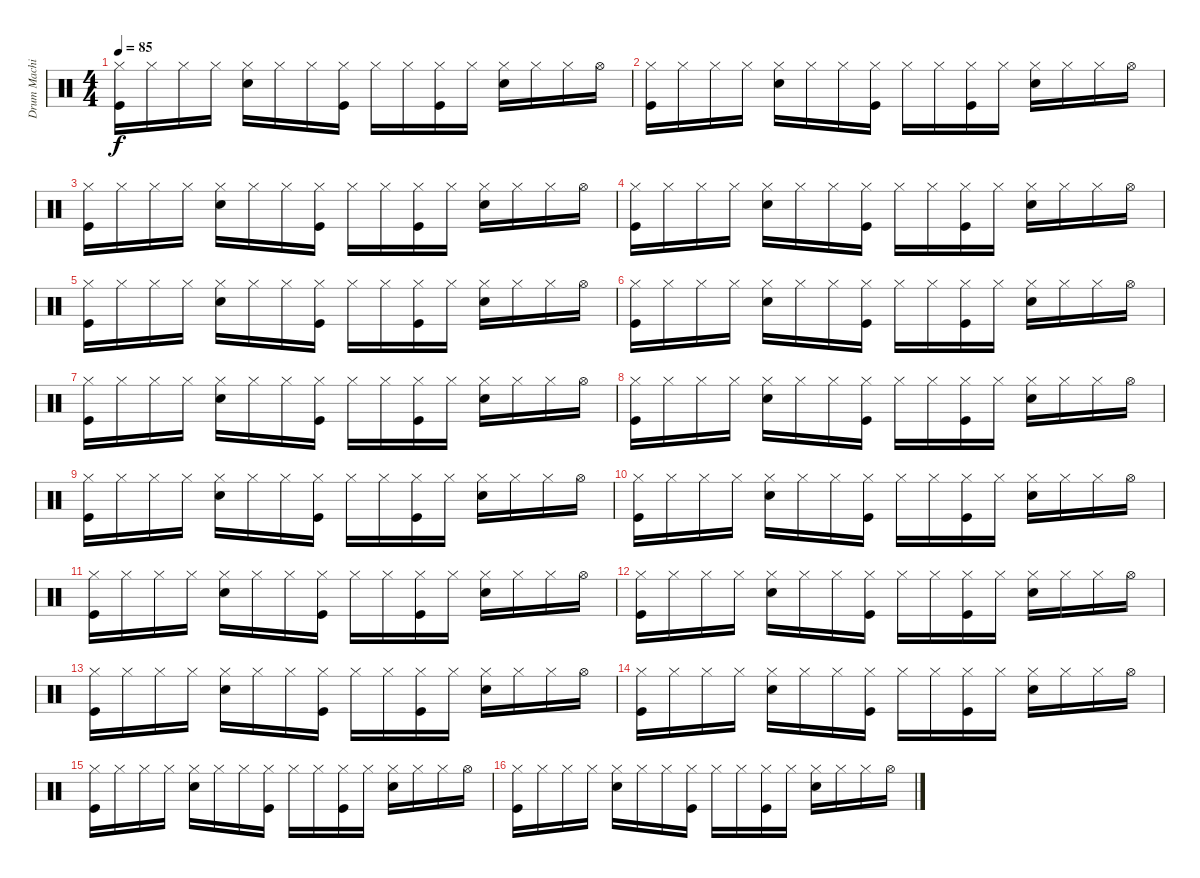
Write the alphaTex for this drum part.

\track ("Drum Machine" "Drum Machi") {instrument percussion}
\staff {score}
\articulation defaults
\ts (4 4)
\tempo 85
\clef neutral
\ks c
("Hi-Hat (closed)" "Kick (hit)").16{dy f} "Hi-Hat (closed)".16 "Hi-Hat (closed)".16 "Hi-Hat (closed)".16 ("Hi-Hat (closed)" "Snare (hit) 2").16 "Hi-Hat (closed)".16 "Hi-Hat (closed)".16 ("Hi-Hat (closed)" "Kick (hit)").16 "Hi-Hat (closed)".16 "Hi-Hat (closed)".16 ("Hi-Hat (closed)" "Kick (hit)").16 "Hi-Hat (closed)".16 ("Hi-Hat (closed)" "Snare (hit) 2").16 "Hi-Hat (closed)".16 "Hi-Hat (closed)".16 "Hi-Hat (open)".16 |
("Hi-Hat (closed)" "Kick (hit)").16 "Hi-Hat (closed)".16 "Hi-Hat (closed)".16 "Hi-Hat (closed)".16 ("Hi-Hat (closed)" "Snare (hit) 2").16 "Hi-Hat (closed)".16 "Hi-Hat (closed)".16 ("Hi-Hat (closed)" "Kick (hit)").16 "Hi-Hat (closed)".16 "Hi-Hat (closed)".16 ("Hi-Hat (closed)" "Kick (hit)").16 "Hi-Hat (closed)".16 ("Hi-Hat (closed)" "Snare (hit) 2").16 "Hi-Hat (closed)".16 "Hi-Hat (closed)".16 "Hi-Hat (open)".16 |
("Hi-Hat (closed)" "Kick (hit)").16 "Hi-Hat (closed)".16 "Hi-Hat (closed)".16 "Hi-Hat (closed)".16 ("Hi-Hat (closed)" "Snare (hit) 2").16 "Hi-Hat (closed)".16 "Hi-Hat (closed)".16 ("Hi-Hat (closed)" "Kick (hit)").16 "Hi-Hat (closed)".16 "Hi-Hat (closed)".16 ("Hi-Hat (closed)" "Kick (hit)").16 "Hi-Hat (closed)".16 ("Hi-Hat (closed)" "Snare (hit) 2").16 "Hi-Hat (closed)".16 "Hi-Hat (closed)".16 "Hi-Hat (open)".16 |
("Hi-Hat (closed)" "Kick (hit)").16 "Hi-Hat (closed)".16 "Hi-Hat (closed)".16 "Hi-Hat (closed)".16 ("Hi-Hat (closed)" "Snare (hit) 2").16 "Hi-Hat (closed)".16 "Hi-Hat (closed)".16 ("Hi-Hat (closed)" "Kick (hit)").16 "Hi-Hat (closed)".16 "Hi-Hat (closed)".16 ("Hi-Hat (closed)" "Kick (hit)").16 "Hi-Hat (closed)".16 ("Hi-Hat (closed)" "Snare (hit) 2").16 "Hi-Hat (closed)".16 "Hi-Hat (closed)".16 "Hi-Hat (open)".16 |
("Hi-Hat (closed)" "Kick (hit)").16 "Hi-Hat (closed)".16 "Hi-Hat (closed)".16 "Hi-Hat (closed)".16 ("Hi-Hat (closed)" "Snare (hit) 2").16 "Hi-Hat (closed)".16 "Hi-Hat (closed)".16 ("Hi-Hat (closed)" "Kick (hit)").16 "Hi-Hat (closed)".16 "Hi-Hat (closed)".16 ("Hi-Hat (closed)" "Kick (hit)").16 "Hi-Hat (closed)".16 ("Hi-Hat (closed)" "Snare (hit) 2").16 "Hi-Hat (closed)".16 "Hi-Hat (closed)".16 "Hi-Hat (open)".16 |
("Hi-Hat (closed)" "Kick (hit)").16 "Hi-Hat (closed)".16 "Hi-Hat (closed)".16 "Hi-Hat (closed)".16 ("Hi-Hat (closed)" "Snare (hit) 2").16 "Hi-Hat (closed)".16 "Hi-Hat (closed)".16 ("Hi-Hat (closed)" "Kick (hit)").16 "Hi-Hat (closed)".16 "Hi-Hat (closed)".16 ("Hi-Hat (closed)" "Kick (hit)").16 "Hi-Hat (closed)".16 ("Hi-Hat (closed)" "Snare (hit) 2").16 "Hi-Hat (closed)".16 "Hi-Hat (closed)".16 "Hi-Hat (open)".16 |
("Hi-Hat (closed)" "Kick (hit)").16 "Hi-Hat (closed)".16 "Hi-Hat (closed)".16 "Hi-Hat (closed)".16 ("Hi-Hat (closed)" "Snare (hit) 2").16 "Hi-Hat (closed)".16 "Hi-Hat (closed)".16 ("Hi-Hat (closed)" "Kick (hit)").16 "Hi-Hat (closed)".16 "Hi-Hat (closed)".16 ("Hi-Hat (closed)" "Kick (hit)").16 "Hi-Hat (closed)".16 ("Hi-Hat (closed)" "Snare (hit) 2").16 "Hi-Hat (closed)".16 "Hi-Hat (closed)".16 "Hi-Hat (open)".16 |
("Hi-Hat (closed)" "Kick (hit)").16 "Hi-Hat (closed)".16 "Hi-Hat (closed)".16 "Hi-Hat (closed)".16 ("Hi-Hat (closed)" "Snare (hit) 2").16 "Hi-Hat (closed)".16 "Hi-Hat (closed)".16 ("Hi-Hat (closed)" "Kick (hit)").16 "Hi-Hat (closed)".16 "Hi-Hat (closed)".16 ("Hi-Hat (closed)" "Kick (hit)").16 "Hi-Hat (closed)".16 ("Hi-Hat (closed)" "Snare (hit) 2").16 "Hi-Hat (closed)".16 "Hi-Hat (closed)".16 "Hi-Hat (open)".16 |
("Hi-Hat (closed)" "Kick (hit)").16 "Hi-Hat (closed)".16 "Hi-Hat (closed)".16 "Hi-Hat (closed)".16 ("Hi-Hat (closed)" "Snare (hit) 2").16 "Hi-Hat (closed)".16 "Hi-Hat (closed)".16 ("Hi-Hat (closed)" "Kick (hit)").16 "Hi-Hat (closed)".16 "Hi-Hat (closed)".16 ("Hi-Hat (closed)" "Kick (hit)").16 "Hi-Hat (closed)".16 ("Hi-Hat (closed)" "Snare (hit) 2").16 "Hi-Hat (closed)".16 "Hi-Hat (closed)".16 "Hi-Hat (open)".16 |
("Hi-Hat (closed)" "Kick (hit)").16 "Hi-Hat (closed)".16 "Hi-Hat (closed)".16 "Hi-Hat (closed)".16 ("Hi-Hat (closed)" "Snare (hit) 2").16 "Hi-Hat (closed)".16 "Hi-Hat (closed)".16 ("Hi-Hat (closed)" "Kick (hit)").16 "Hi-Hat (closed)".16 "Hi-Hat (closed)".16 ("Hi-Hat (closed)" "Kick (hit)").16 "Hi-Hat (closed)".16 ("Hi-Hat (closed)" "Snare (hit) 2").16 "Hi-Hat (closed)".16 "Hi-Hat (closed)".16 "Hi-Hat (open)".16 |
("Hi-Hat (closed)" "Kick (hit)").16 "Hi-Hat (closed)".16 "Hi-Hat (closed)".16 "Hi-Hat (closed)".16 ("Hi-Hat (closed)" "Snare (hit) 2").16 "Hi-Hat (closed)".16 "Hi-Hat (closed)".16 ("Hi-Hat (closed)" "Kick (hit)").16 "Hi-Hat (closed)".16 "Hi-Hat (closed)".16 ("Hi-Hat (closed)" "Kick (hit)").16 "Hi-Hat (closed)".16 ("Hi-Hat (closed)" "Snare (hit) 2").16 "Hi-Hat (closed)".16 "Hi-Hat (closed)".16 "Hi-Hat (open)".16 |
("Hi-Hat (closed)" "Kick (hit)").16 "Hi-Hat (closed)".16 "Hi-Hat (closed)".16 "Hi-Hat (closed)".16 ("Hi-Hat (closed)" "Snare (hit) 2").16 "Hi-Hat (closed)".16 "Hi-Hat (closed)".16 ("Hi-Hat (closed)" "Kick (hit)").16 "Hi-Hat (closed)".16 "Hi-Hat (closed)".16 ("Hi-Hat (closed)" "Kick (hit)").16 "Hi-Hat (closed)".16 ("Hi-Hat (closed)" "Snare (hit) 2").16 "Hi-Hat (closed)".16 "Hi-Hat (closed)".16 "Hi-Hat (open)".16 |
("Hi-Hat (closed)" "Kick (hit)").16 "Hi-Hat (closed)".16 "Hi-Hat (closed)".16 "Hi-Hat (closed)".16 ("Hi-Hat (closed)" "Snare (hit) 2").16 "Hi-Hat (closed)".16 "Hi-Hat (closed)".16 ("Hi-Hat (closed)" "Kick (hit)").16 "Hi-Hat (closed)".16 "Hi-Hat (closed)".16 ("Hi-Hat (closed)" "Kick (hit)").16 "Hi-Hat (closed)".16 ("Hi-Hat (closed)" "Snare (hit) 2").16 "Hi-Hat (closed)".16 "Hi-Hat (closed)".16 "Hi-Hat (open)".16 |
("Hi-Hat (closed)" "Kick (hit)").16 "Hi-Hat (closed)".16 "Hi-Hat (closed)".16 "Hi-Hat (closed)".16 ("Hi-Hat (closed)" "Snare (hit) 2").16 "Hi-Hat (closed)".16 "Hi-Hat (closed)".16 ("Hi-Hat (closed)" "Kick (hit)").16 "Hi-Hat (closed)".16 "Hi-Hat (closed)".16 ("Hi-Hat (closed)" "Kick (hit)").16 "Hi-Hat (closed)".16 ("Hi-Hat (closed)" "Snare (hit) 2").16 "Hi-Hat (closed)".16 "Hi-Hat (closed)".16 "Hi-Hat (open)".16 |
("Hi-Hat (closed)" "Kick (hit)").16 "Hi-Hat (closed)".16 "Hi-Hat (closed)".16 "Hi-Hat (closed)".16 ("Hi-Hat (closed)" "Snare (hit) 2").16 "Hi-Hat (closed)".16 "Hi-Hat (closed)".16 ("Hi-Hat (closed)" "Kick (hit)").16 "Hi-Hat (closed)".16 "Hi-Hat (closed)".16 ("Hi-Hat (closed)" "Kick (hit)").16 "Hi-Hat (closed)".16 ("Hi-Hat (closed)" "Snare (hit) 2").16 "Hi-Hat (closed)".16 "Hi-Hat (closed)".16 "Hi-Hat (open)".16 |
("Hi-Hat (closed)" "Kick (hit)").16 "Hi-Hat (closed)".16 "Hi-Hat (closed)".16 "Hi-Hat (closed)".16 ("Hi-Hat (closed)" "Snare (hit) 2").16 "Hi-Hat (closed)".16 "Hi-Hat (closed)".16 ("Hi-Hat (closed)" "Kick (hit)").16 "Hi-Hat (closed)".16 "Hi-Hat (closed)".16 ("Hi-Hat (closed)" "Kick (hit)").16 "Hi-Hat (closed)".16 ("Hi-Hat (closed)" "Snare (hit) 2").16 "Hi-Hat (closed)".16 "Hi-Hat (closed)".16 "Hi-Hat (open)".16
